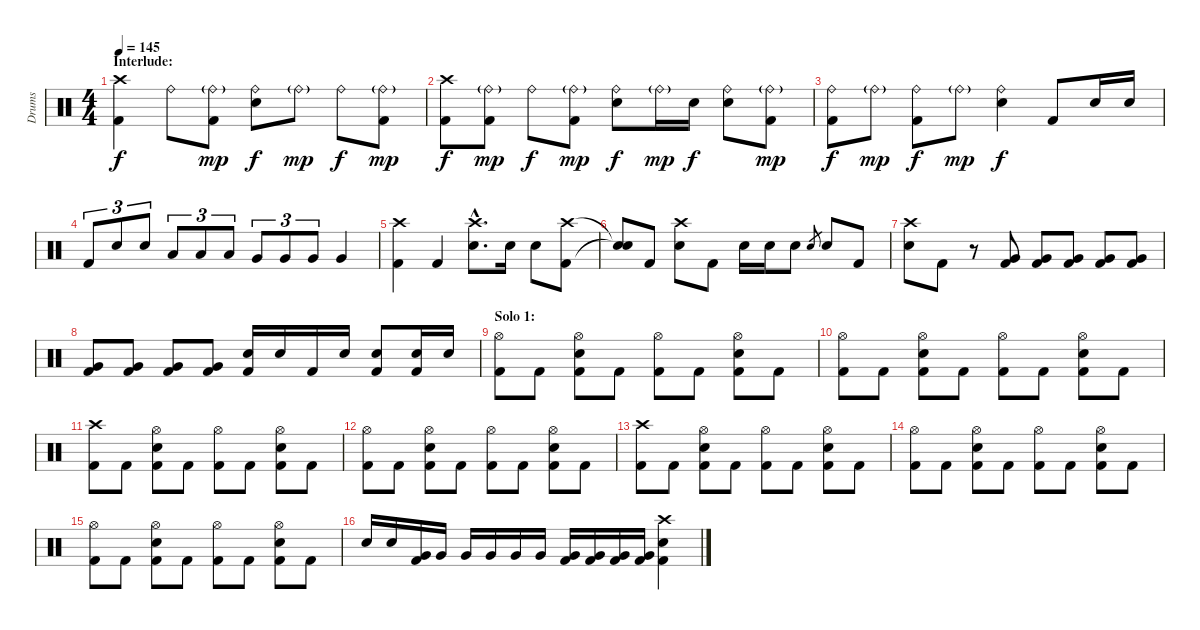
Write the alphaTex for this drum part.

\track ("Drums" "Drums") {instrument percussion}
\staff {score}
\articulation defaults
\ts (4 4)
\section ("" "Interlude:")
\tempo 145
\clef neutral
\ks c
("Crash high (hit)" "Kick (hit) 2").4{dy f} "Ride (bell)".8 ("Ride (bell)"{g} "Kick (hit) 2").8{dy mp} ("Ride (bell)" "Electric Snare (hit)").8{dy f} "Ride (bell)"{g}.8{dy mp} "Ride (bell)".8{dy f} ("Ride (bell)"{g} "Kick (hit) 2").8{dy mp} |
("Crash high (hit)" "Kick (hit) 2").8{dy f} ("Ride (bell)"{g} "Kick (hit) 2").8{dy mp} "Ride (bell)".8{dy f} ("Ride (bell)"{g} "Kick (hit) 2").8{dy mp} ("Ride (bell)" "Electric Snare (hit)").8{dy f} "Ride (bell)"{g}.16{dy mp} "Electric Snare (hit)".16{dy f} ("Ride (bell)" "Electric Snare (hit)").8 ("Ride (bell)"{g} "Kick (hit) 2").8{dy mp} |
("Ride (bell)" "Kick (hit) 2").8{dy f} "Ride (bell)"{g}.8{dy mp} ("Ride (bell)" "Kick (hit) 2").8{dy f} "Ride (bell)"{g}.8{dy mp} ("Ride (bell)" "Electric Snare (hit)").4{dy f} "Kick (hit) 2".8 "Electric Snare (hit)".16 "Electric Snare (hit)".16 |
"Kick (hit) 2".8{tu (3 2)} "Electric Snare (hit)".8{tu (3 2)} "Electric Snare (hit)".8{tu (3 2)} "Low Tom (hit)".8{tu (3 2)} "Low Tom (hit)".8{tu (3 2)} "Low Tom (hit)".8{tu (3 2)} "Very Low Tom (hit)".8{tu (3 2)} "Very Low Tom (hit)".8{tu (3 2)} "Very Low Tom (hit)".8{tu (3 2)} "Very Low Tom (hit)".4 |
("Crash high (hit)" "Kick (hit) 2").4 "Kick (hit) 2".4 ("Crash high (hit)"{hac} "Electric Snare (hit)"{hac}).8{d} "Electric Snare (hit)".16 "Electric Snare (hit)".8 ("Crash high (hit)" "Kick (hit) 2").8 |
("Snare (hit)"{t} "Snare (hit)"{t}).8 "Kick (hit) 2".8 ("Crash high (hit)" "Electric Snare (hit)").8 "Kick (hit) 2".8 "Electric Snare (hit)".16 "Electric Snare (hit)".16 "Electric Snare (hit)".8 "Electric Snare (hit)".8{gr} "Electric Snare (hit)".8 "Kick (hit) 2".8 |
("Crash high (hit)" "Electric Snare (hit)").8 "Kick (hit) 2".8 r.8 ("Very Low Tom (hit)" "Kick (hit) 2").8 ("Very Low Tom (hit)" "Kick (hit) 2").8 ("Very Low Tom (hit)" "Kick (hit) 2").8 ("Very Low Tom (hit)" "Kick (hit) 2").8 ("Very Low Tom (hit)" "Kick (hit) 2").8 |
("Very Low Tom (hit)" "Kick (hit) 2").8 ("Very Low Tom (hit)" "Kick (hit) 2").8 ("Very Low Tom (hit)" "Kick (hit) 2").8 ("Very Low Tom (hit)" "Kick (hit) 2").8 ("Electric Snare (hit)" "Kick (hit) 2").16 "Electric Snare (hit)".16 "Kick (hit) 2".16 "Electric Snare (hit)".16 ("Electric Snare (hit)" "Kick (hit) 2").8 ("Electric Snare (hit)" "Kick (hit) 2").16 "Electric Snare (hit)".16 |
\section ("" "Solo 1:")
("Hi-Hat (open)" "Kick (hit) 2").8 "Kick (hit) 2".8 ("Hi-Hat (open)" "Electric Snare (hit)" "Kick (hit) 2").8 "Kick (hit) 2".8 ("Hi-Hat (open)" "Kick (hit) 2").8 "Kick (hit) 2".8 ("Hi-Hat (open)" "Electric Snare (hit)" "Kick (hit) 2").8 "Kick (hit) 2".8 |
("Hi-Hat (open)" "Kick (hit) 2").8 "Kick (hit) 2".8 ("Hi-Hat (open)" "Electric Snare (hit)" "Kick (hit) 2").8 "Kick (hit) 2".8 ("Hi-Hat (open)" "Kick (hit) 2").8 "Kick (hit) 2".8 ("Hi-Hat (open)" "Electric Snare (hit)" "Kick (hit) 2").8 "Kick (hit) 2".8 |
("Crash high (hit)" "Kick (hit) 2").8 "Kick (hit) 2".8 ("Hi-Hat (open)" "Electric Snare (hit)" "Kick (hit) 2").8 "Kick (hit) 2".8 ("Hi-Hat (open)" "Kick (hit) 2").8 "Kick (hit) 2".8 ("Hi-Hat (open)" "Electric Snare (hit)" "Kick (hit) 2").8 "Kick (hit) 2".8 |
("Hi-Hat (open)" "Kick (hit) 2").8 "Kick (hit) 2".8 ("Hi-Hat (open)" "Electric Snare (hit)" "Kick (hit) 2").8 "Kick (hit) 2".8 ("Hi-Hat (open)" "Kick (hit) 2").8 "Kick (hit) 2".8 ("Hi-Hat (open)" "Electric Snare (hit)" "Kick (hit) 2").8 "Kick (hit) 2".8 |
("Crash high (hit)" "Kick (hit) 2").8 "Kick (hit) 2".8 ("Hi-Hat (open)" "Electric Snare (hit)" "Kick (hit) 2").8 "Kick (hit) 2".8 ("Hi-Hat (open)" "Kick (hit) 2").8 "Kick (hit) 2".8 ("Hi-Hat (open)" "Electric Snare (hit)" "Kick (hit) 2").8 "Kick (hit) 2".8 |
("Hi-Hat (open)" "Kick (hit) 2").8 "Kick (hit) 2".8 ("Hi-Hat (open)" "Electric Snare (hit)" "Kick (hit) 2").8 "Kick (hit) 2".8 ("Hi-Hat (open)" "Kick (hit) 2").8 "Kick (hit) 2".8 ("Hi-Hat (open)" "Electric Snare (hit)" "Kick (hit) 2").8 "Kick (hit) 2".8 |
("Hi-Hat (open)" "Kick (hit) 2").8 "Kick (hit) 2".8 ("Hi-Hat (open)" "Electric Snare (hit)" "Kick (hit) 2").8 "Kick (hit) 2".8 ("Hi-Hat (open)" "Kick (hit) 2").8 "Kick (hit) 2".8 ("Hi-Hat (open)" "Electric Snare (hit)" "Kick (hit) 2").8 "Kick (hit) 2".8 |
"Electric Snare (hit)".16 "Electric Snare (hit)".16 ("Very Low Tom (hit)" "Kick (hit) 2").16 "Very Low Tom (hit)".16 "Very Low Tom (hit)".16 "Very Low Tom (hit)".16 "Very Low Tom (hit)".16 "Very Low Tom (hit)".16 ("Very Low Tom (hit)" "Kick (hit) 2").16 ("Very Low Tom (hit)" "Kick (hit) 2").16 ("Very Low Tom (hit)" "Kick (hit) 2").16 ("Very Low Tom (hit)" "Kick (hit) 2").16 ("Crash high (hit)" "Electric Snare (hit)" "Kick (hit) 2").4
